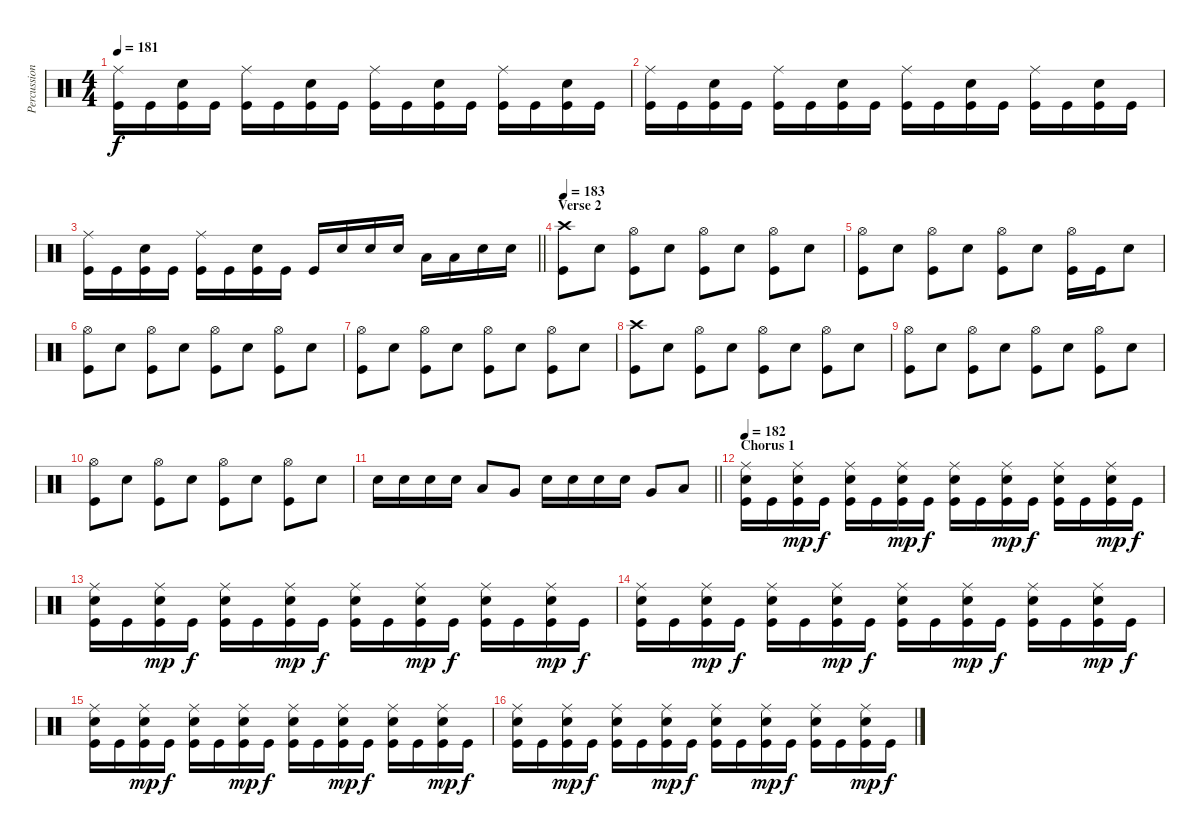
\track ("Percussion" "Percussion") {instrument percussion}
\staff {score}
\articulation defaults
\ts (4 4)
\tempo 181
\clef neutral
\ks c
("Ride (middle)" "Kick (hit)").16{dy f} "Kick (hit)".16 ("Snare (hit) 2" "Kick (hit)").16 "Kick (hit)".16 ("Ride (middle)" "Kick (hit)").16 "Kick (hit)".16 ("Snare (hit) 2" "Kick (hit)").16 "Kick (hit)".16 ("Ride (middle)" "Kick (hit)").16 "Kick (hit)".16 ("Snare (hit) 2" "Kick (hit)").16 "Kick (hit)".16 ("Ride (middle)" "Kick (hit)").16 "Kick (hit)".16 ("Snare (hit) 2" "Kick (hit)").16 "Kick (hit)".16 |
("Ride (middle)" "Kick (hit)").16 "Kick (hit)".16 ("Snare (hit) 2" "Kick (hit)").16 "Kick (hit)".16 ("Ride (middle)" "Kick (hit)").16 "Kick (hit)".16 ("Snare (hit) 2" "Kick (hit)").16 "Kick (hit)".16 ("Ride (middle)" "Kick (hit)").16 "Kick (hit)".16 ("Snare (hit) 2" "Kick (hit)").16 "Kick (hit)".16 ("Ride (middle)" "Kick (hit)").16 "Kick (hit)".16 ("Snare (hit) 2" "Kick (hit)").16 "Kick (hit)".16 |
\barLineRight lightlight
("Ride (middle)" "Kick (hit)").16 "Kick (hit)".16 ("Snare (hit) 2" "Kick (hit)").16 "Kick (hit)".16 ("Ride (middle)" "Kick (hit)").16 "Kick (hit)".16 ("Snare (hit) 2" "Kick (hit)").16 "Kick (hit)".16 "Kick (hit)".16 "Snare (hit) 2".16 "Snare (hit) 2".16 "Snare (hit) 2".16 "Low Tom (hit)".16 "Low Tom (hit)".16 "Snare (hit) 2".16 "Snare (hit) 2".16 |
\section ("" "Verse 2")
\tempo 183
("Crash high (hit)" "Kick (hit)").8 "Snare (hit) 2".8 ("Hi-Hat (open)" "Kick (hit)").8 "Snare (hit) 2".8 ("Hi-Hat (open)" "Kick (hit)").8 "Snare (hit) 2".8 ("Hi-Hat (open)" "Kick (hit)").8 "Snare (hit) 2".8 |
("Kick (hit)" "Hi-Hat (open)").8 "Snare (hit) 2".8 ("Kick (hit)" "Hi-Hat (open)").8 "Snare (hit) 2".8 ("Hi-Hat (open)" "Kick (hit)").8 "Snare (hit) 2".8 ("Hi-Hat (open)" "Kick (hit)").16 "Kick (hit)".16 "Snare (hit) 2".8 |
("Hi-Hat (open)" "Kick (hit)").8 "Snare (hit) 2".8 ("Hi-Hat (open)" "Kick (hit)").8 "Snare (hit) 2".8 ("Hi-Hat (open)" "Kick (hit)").8 "Snare (hit) 2".8 ("Hi-Hat (open)" "Kick (hit)").8 "Snare (hit) 2".8 |
("Hi-Hat (open)" "Kick (hit)").8 "Snare (hit) 2".8 ("Hi-Hat (open)" "Kick (hit)").8 "Snare (hit) 2".8 ("Hi-Hat (open)" "Kick (hit)").8 "Snare (hit) 2".8 ("Hi-Hat (open)" "Kick (hit)").8 "Snare (hit) 2".8 |
("Crash high (hit)" "Kick (hit)").8 "Snare (hit) 2".8 ("Hi-Hat (open)" "Kick (hit)").8 "Snare (hit) 2".8 ("Hi-Hat (open)" "Kick (hit)").8 "Snare (hit) 2".8 ("Hi-Hat (open)" "Kick (hit)").8 "Snare (hit) 2".8 |
("Hi-Hat (open)" "Kick (hit)").8 "Snare (hit) 2".8 ("Hi-Hat (open)" "Kick (hit)").8 "Snare (hit) 2".8 ("Hi-Hat (open)" "Kick (hit)").8 "Snare (hit) 2".8 ("Hi-Hat (open)" "Kick (hit)").8 "Snare (hit) 2".8 |
("Hi-Hat (open)" "Kick (hit)").8 "Snare (hit) 2".8 ("Hi-Hat (open)" "Kick (hit)").8 "Snare (hit) 2".8 ("Hi-Hat (open)" "Kick (hit)").8 "Snare (hit) 2".8 ("Hi-Hat (open)" "Kick (hit)").8 "Snare (hit) 2".8 |
\barLineRight lightlight "Snare (hit) 2".16 "Snare (hit) 2".16 "Snare (hit) 2".16 "Snare (hit) 2".16 "Low Tom (hit)".8 "Very Low Tom (hit)".8 "Snare (hit) 2".16 "Snare (hit) 2".16 "Snare (hit) 2".16 "Snare (hit) 2".16 "Very Low Tom (hit)".8 "Low Floor Tom (hit)".8
|
\section ("" "Chorus 1")
\tempo 182
("Ride (middle)" "Snare (hit) 2" "Kick (hit)").16 "Kick (hit)".16 ("Ride (middle)" "Snare (hit) 2" "Kick (hit)").16{dy mp} "Kick (hit)".16{dy f} ("Ride (middle)" "Snare (hit) 2" "Kick (hit)").16 "Kick (hit)".16 ("Ride (middle)" "Snare (hit) 2" "Kick (hit)").16{dy mp} "Kick (hit)".16{dy f} ("Ride (middle)" "Snare (hit) 2" "Kick (hit)").16 "Kick (hit)".16 ("Ride (middle)" "Snare (hit) 2" "Kick (hit)").16{dy mp} "Kick (hit)".16{dy f} ("Ride (middle)" "Snare (hit) 2" "Kick (hit)").16 "Kick (hit)".16 ("Ride (middle)" "Snare (hit) 2" "Kick (hit)").16{dy mp} "Kick (hit)".16{dy f} |
("Ride (middle)" "Snare (hit) 2" "Kick (hit)").16 "Kick (hit)".16 ("Ride (middle)" "Snare (hit) 2" "Kick (hit)").16{dy mp} "Kick (hit)".16{dy f} ("Ride (middle)" "Snare (hit) 2" "Kick (hit)").16 "Kick (hit)".16 ("Ride (middle)" "Snare (hit) 2" "Kick (hit)").16{dy mp} "Kick (hit)".16{dy f} ("Ride (middle)" "Snare (hit) 2" "Kick (hit)").16 "Kick (hit)".16 ("Ride (middle)" "Snare (hit) 2" "Kick (hit)").16{dy mp} "Kick (hit)".16{dy f} ("Ride (middle)" "Snare (hit) 2" "Kick (hit)").16 "Kick (hit)".16 ("Ride (middle)" "Snare (hit) 2" "Kick (hit)").16{dy mp} "Kick (hit)".16{dy f} |
("Ride (middle)" "Snare (hit) 2" "Kick (hit)").16 "Kick (hit)".16 ("Ride (middle)" "Snare (hit) 2" "Kick (hit)").16{dy mp} "Kick (hit)".16{dy f} ("Ride (middle)" "Snare (hit) 2" "Kick (hit)").16 "Kick (hit)".16 ("Ride (middle)" "Snare (hit) 2" "Kick (hit)").16{dy mp} "Kick (hit)".16{dy f} ("Ride (middle)" "Snare (hit) 2" "Kick (hit)").16 "Kick (hit)".16 ("Ride (middle)" "Snare (hit) 2" "Kick (hit)").16{dy mp} "Kick (hit)".16{dy f} ("Ride (middle)" "Snare (hit) 2" "Kick (hit)").16 "Kick (hit)".16 ("Ride (middle)" "Snare (hit) 2" "Kick (hit)").16{dy mp} "Kick (hit)".16{dy f} |
("Ride (middle)" "Snare (hit) 2" "Kick (hit)").16 "Kick (hit)".16 ("Ride (middle)" "Snare (hit) 2" "Kick (hit)").16{dy mp} "Kick (hit)".16{dy f} ("Ride (middle)" "Snare (hit) 2" "Kick (hit)").16 "Kick (hit)".16 ("Ride (middle)" "Snare (hit) 2" "Kick (hit)").16{dy mp} "Kick (hit)".16{dy f} ("Ride (middle)" "Snare (hit) 2" "Kick (hit)").16 "Kick (hit)".16 ("Ride (middle)" "Snare (hit) 2" "Kick (hit)").16{dy mp} "Kick (hit)".16{dy f} ("Ride (middle)" "Snare (hit) 2" "Kick (hit)").16 "Kick (hit)".16 ("Ride (middle)" "Snare (hit) 2" "Kick (hit)").16{dy mp} "Kick (hit)".16{dy f} |
("Ride (middle)" "Snare (hit) 2" "Kick (hit)").16 "Kick (hit)".16 ("Ride (middle)" "Snare (hit) 2" "Kick (hit)").16{dy mp} "Kick (hit)".16{dy f} ("Ride (middle)" "Snare (hit) 2" "Kick (hit)").16 "Kick (hit)".16 ("Ride (middle)" "Snare (hit) 2" "Kick (hit)").16{dy mp} "Kick (hit)".16{dy f} ("Ride (middle)" "Snare (hit) 2" "Kick (hit)").16 "Kick (hit)".16 ("Ride (middle)" "Snare (hit) 2" "Kick (hit)").16{dy mp} "Kick (hit)".16{dy f} ("Ride (middle)" "Snare (hit) 2" "Kick (hit)").16 "Kick (hit)".16 ("Ride (middle)" "Snare (hit) 2" "Kick (hit)").16{dy mp} "Kick (hit)".16{dy f}
